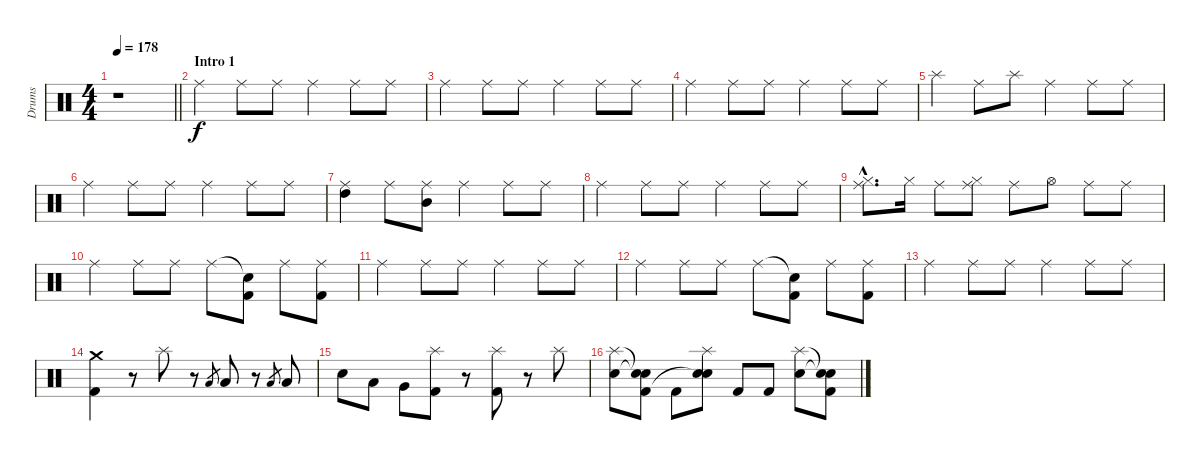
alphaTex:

\track ("Drums" "Drums") {instrument percussion}
\staff {score}
\articulation defaults
\ts (4 4)
\tempo 178
\clef neutral
\barLineRight lightlight
\ks c
r.1{dy f} |
\section ("" "Intro 1")
"Ride (middle)".4 "Ride (middle)".8 "Ride (middle)".8 "Ride (middle)".4 "Ride (middle)".8 "Ride (middle)".8 |
"Ride (middle)".4 "Ride (middle)".8 "Ride (middle)".8 "Ride (middle)".4 "Ride (middle)".8 "Ride (middle)".8 |
"Ride (middle)".4 "Ride (middle)".8 "Ride (middle)".8 "Ride (middle)".4 "Ride (middle)".8 "Ride (middle)".8 |
"Splash (hit)".4 "Ride (middle)".8 "Splash (hit)".8 "Ride (middle)".4 "Ride (middle)".8 "Ride (middle)".8 |
"Ride (middle)".4 "Ride (middle)".8 "Ride (middle)".8 "Ride (middle)".4 "Ride (middle)".8 "Ride (middle)".8 |
("Ride (middle)" "High Tom (hit)").4 "Ride (middle)".8 ("Ride (middle)" "Mid Tom (hit)").8 "Ride (middle)".4 "Ride (middle)".8 "Ride (middle)".8 |
"Ride (middle)".4 "Ride (middle)".8 "Ride (middle)".8 "Ride (middle)".4 "Ride (middle)".8 "Ride (middle)".8 |
("Ride (middle)"{hac} "Hi-Hat (closed)"{hac}).8{d} "Hi-Hat (closed)".16 "Ride (middle)".8 ("Ride (middle)" "Hi-Hat (closed)").8 "Ride (middle)".8 "Hi-Hat (open)".8 "Ride (middle)".8 "Ride (middle)".8 |
"Ride (middle)".4 "Ride (middle)".8 "Ride (middle)".8 "Ride (middle)".8 ("Snare (hit)"{t} "Kick (hit) 2").8 "Ride (middle)".8 ("Ride (middle)" "Kick (hit) 2").8 |
"Ride (middle)".4 "Ride (middle)".8 "Ride (middle)".8 "Ride (middle)".4 "Ride (middle)".8 "Ride (middle)".8 |
"Ride (middle)".4 "Ride (middle)".8 "Ride (middle)".8 "Ride (middle)".8 ("Snare (hit)"{t} "Kick (hit) 2").8 "Ride (middle)".8 ("Ride (middle)" "Kick (hit) 2").8 |
"Ride (middle)".4 "Ride (middle)".8 "Ride (middle)".8 "Ride (middle)".4 "Ride (middle)".8 "Ride (middle)".8 |
("Crash medium (hit)" "Kick (hit) 2").4 r.8 "Splash (hit)".8 r.8 "Low Tom (hit)".8{gr} "Low Tom (hit)".8 r.8 "Low Tom (hit)".8{gr} "Low Tom (hit)".8 |
"Electric Snare (hit)".8 "Low Tom (hit)".8 "Very Low Tom (hit)".8 ("Splash (hit)" "Kick (hit) 2").8 r.8 ("Splash (hit)" "Kick (hit) 2").8 r.8 "Splash (hit)".8 |
("Splash (hit)" "Electric Snare (hit)").8 ("Snare (hit)"{t} "Snare (hit)"{t} "Kick (hit) 2").8 "Kick (hit) 2".8 ("Splash (hit)" "Electric Snare (hit)" "Snare (hit)"{t}).8 "Kick (hit) 2".8 "Kick (hit) 2".8 ("Splash (hit)" "Electric Snare (hit)").8 ("Snare (hit)"{t} "Snare (hit)"{t} "Kick (hit) 2").8
